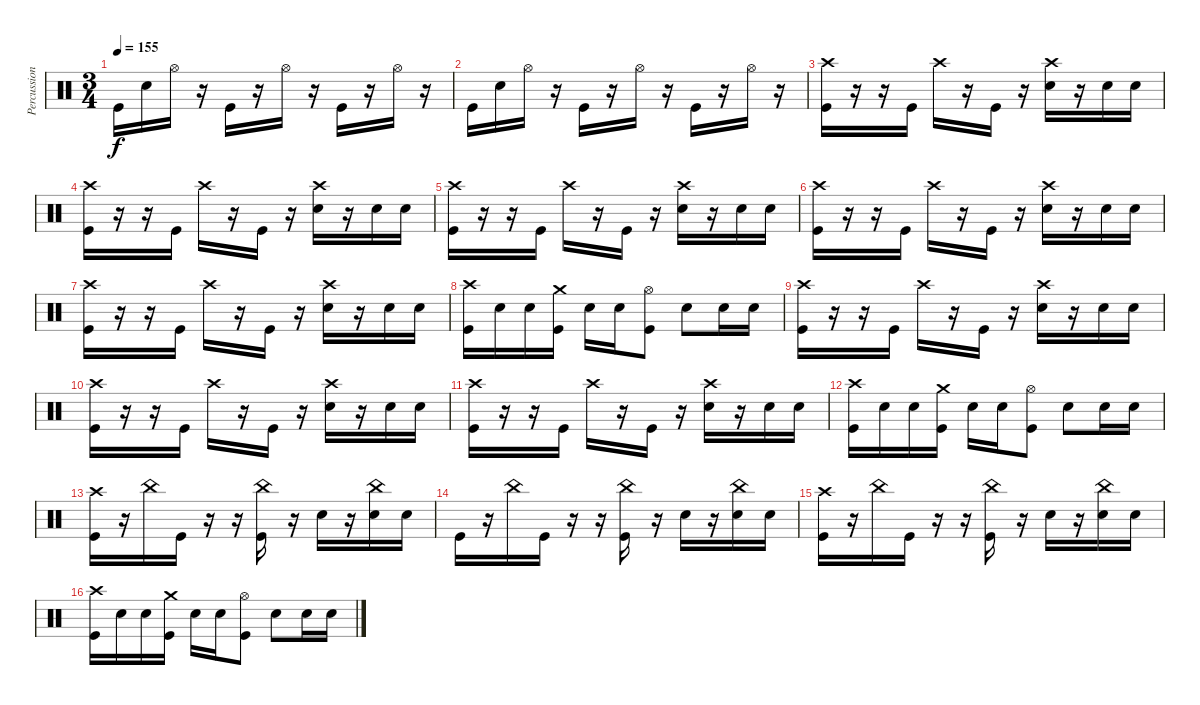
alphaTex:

\track ("Percussion" "Percussion") {instrument percussion}
\staff {score}
\articulation defaults
\ts (3 4)
\tempo 155
\clef neutral
\ks c "Kick (hit)".16{dy f} "Snare (hit) 2".16 "Hi-Hat (open)".16
r.16 "Kick (hit)".16 r.16 "Hi-Hat (open)".16 r.16 "Kick (hit)".16 r.16 "Hi-Hat (open)".16 r.16 |
"Kick (hit)".16 "Snare (hit) 2".16 "Hi-Hat (open)".16 r.16 "Kick (hit)".16 r.16 "Hi-Hat (open)".16 r.16 "Kick (hit)".16 r.16 "Hi-Hat (open)".16 r.16 |
("Crash high (hit)" "Kick (hit)").16 r.16 r.16 "Kick (hit)".16 "Crash high (hit)".16 r.16 "Kick (hit)".16 r.16 ("Crash high (hit)" "Snare (hit) 2").16 r.16 "Snare (hit) 2".16 "Snare (hit) 2".16 |
("Crash high (hit)" "Kick (hit)").16 r.16 r.16 "Kick (hit)".16 "Crash high (hit)".16 r.16 "Kick (hit)".16 r.16 ("Crash high (hit)" "Snare (hit) 2").16 r.16 "Snare (hit) 2".16 "Snare (hit) 2".16 |
("Crash high (hit)" "Kick (hit)").16 r.16 r.16 "Kick (hit)".16 "Crash high (hit)".16 r.16 "Kick (hit)".16 r.16 ("Crash high (hit)" "Snare (hit) 2").16 r.16 "Snare (hit) 2".16 "Snare (hit) 2".16 |
("Crash high (hit)" "Kick (hit)").16 r.16 r.16 "Kick (hit)".16 "Crash high (hit)".16 r.16 "Kick (hit)".16 r.16 ("Crash high (hit)" "Snare (hit) 2").16 r.16 "Snare (hit) 2".16 "Snare (hit) 2".16 |
("Crash high (hit)" "Kick (hit)").16 r.16 r.16 "Kick (hit)".16 "Crash high (hit)".16 r.16 "Kick (hit)".16 r.16 ("Crash high (hit)" "Snare (hit) 2").16 r.16 "Snare (hit) 2".16 "Snare (hit) 2".16 |
("Kick (hit)" "Crash high (hit)").16 "Snare (hit) 2".16 "Snare (hit) 2".16 ("Kick (hit)" "Crash medium (hit)").16 "Snare (hit) 2".16 "Snare (hit) 2".16 ("Kick (hit)" "Hi-Hat (open)").8 "Snare (hit) 2".8 "Snare (hit) 2".16 "Snare (hit) 2".16 |
("Crash high (hit)" "Kick (hit)").16 r.16 r.16 "Kick (hit)".16 "Crash high (hit)".16 r.16 "Kick (hit)".16 r.16 ("Crash high (hit)" "Snare (hit) 2").16 r.16 "Snare (hit) 2".16 "Snare (hit) 2".16 |
("Crash high (hit)" "Kick (hit)").16 r.16 r.16 "Kick (hit)".16 "Crash high (hit)".16 r.16 "Kick (hit)".16 r.16 ("Crash high (hit)" "Snare (hit) 2").16 r.16 "Snare (hit) 2".16 "Snare (hit) 2".16 |
("Crash high (hit)" "Kick (hit)").16 r.16 r.16 "Kick (hit)".16 "Crash high (hit)".16 r.16 "Kick (hit)".16 r.16 ("Crash high (hit)" "Snare (hit) 2").16 r.16 "Snare (hit) 2".16 "Snare (hit) 2".16 |
("Kick (hit)" "Crash high (hit)").16 "Snare (hit) 2".16 "Snare (hit) 2".16 ("Kick (hit)" "Crash medium (hit)").16 "Snare (hit) 2".16 "Snare (hit) 2".16 ("Kick (hit)" "Hi-Hat (open)").8 "Snare (hit) 2".8 "Snare (hit) 2".16 "Snare (hit) 2".16 |
("Crash high (hit)" "Kick (hit)").16 r.16 "China (hit)".16 "Kick (hit)".16 r.16 r.16 ("Kick (hit)" "China (hit)").16 r.16 "Snare (hit) 2".16 r.16 ("Snare (hit) 2" "China (hit)").16 "Snare (hit) 2".16 |
"Kick (hit)".16 r.16 "China (hit)".16 "Kick (hit)".16 r.16 r.16 ("Kick (hit)" "China (hit)").16 r.16 "Snare (hit) 2".16 r.16 ("Snare (hit) 2" "China (hit)").16 "Snare (hit) 2".16 |
("Crash high (hit)" "Kick (hit)").16 r.16 "China (hit)".16 "Kick (hit)".16 r.16 r.16 ("Kick (hit)" "China (hit)").16 r.16 "Snare (hit) 2".16 r.16 ("Snare (hit) 2" "China (hit)").16 "Snare (hit) 2".16 |
("Kick (hit)" "Crash high (hit)").16 "Snare (hit) 2".16 "Snare (hit) 2".16 ("Kick (hit)" "Crash medium (hit)").16 "Snare (hit) 2".16 "Snare (hit) 2".16 ("Kick (hit)" "Hi-Hat (open)").8 "Snare (hit) 2".8 "Snare (hit) 2".16 "Snare (hit) 2".16
